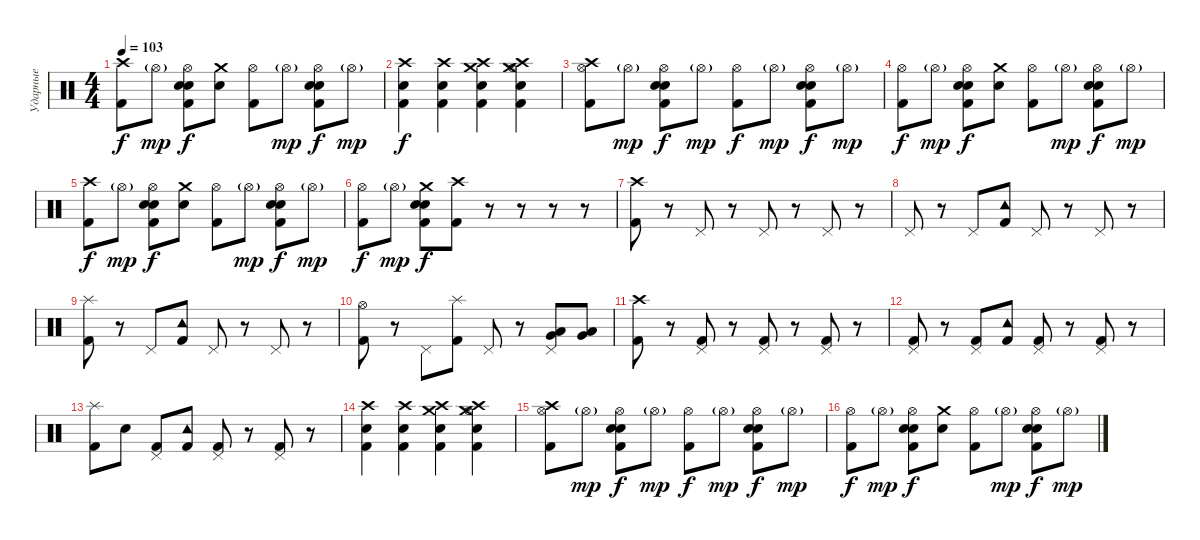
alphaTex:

\track ("Ударные" "Ударные") {instrument percussion}
\staff {score}
\articulation defaults
\ts (4 4)
\tempo 103
\clef neutral
\ks c
("Crash high (hit)" "Kick (hit) 2").8{dy f} "Hi-Hat (open)"{g}.8{dy mp} ("Hi-Hat (open)" "Snare (hit) 2" "Hand Clap (hit)" "Kick (hit) 2").8{dy f} ("Crash medium (hit)" "Snare (hit) 2").8 ("Hi-Hat (open)" "Kick (hit) 2").8 "Hi-Hat (open)"{g}.8{dy mp} ("Hi-Hat (open)" "Snare (hit) 2" "Hand Clap (hit)" "Kick (hit) 2").8{dy f} "Hi-Hat (open)"{g}.8{dy mp} |
("Crash high (hit)" "Snare (hit) 2" "Kick (hit) 2").4{dy f} ("Crash high (hit)" "Snare (hit) 2" "Kick (hit) 2").4 ("Crash medium (hit)" "Crash high (hit)" "Snare (hit) 2" "Kick (hit) 2").4 ("Crash medium (hit)" "Crash high (hit)" "Snare (hit) 2" "Hi-Hat (open)" "Kick (hit) 2").4 |
("Crash high (hit)" "Hi-Hat (open)" "Kick (hit) 2").8 "Hi-Hat (open)"{g}.8{dy mp} ("Hi-Hat (open)" "Snare (hit) 2" "Hand Clap (hit)" "Kick (hit) 2").8{dy f} "Hi-Hat (open)"{g}.8{dy mp} ("Hi-Hat (open)" "Kick (hit) 2").8{dy f} "Hi-Hat (open)"{g}.8{dy mp} ("Hi-Hat (open)" "Snare (hit) 2" "Hand Clap (hit)" "Kick (hit) 2").8{dy f} "Hi-Hat (open)"{g}.8{dy mp} |
("Hi-Hat (open)" "Kick (hit) 2").8{dy f} "Hi-Hat (open)"{g}.8{dy mp} ("Hi-Hat (open)" "Snare (hit) 2" "Hand Clap (hit)" "Kick (hit) 2").8{dy f} ("Crash medium (hit)" "Snare (hit) 2").8 ("Hi-Hat (open)" "Kick (hit) 2").8 "Hi-Hat (open)"{g}.8{dy mp} ("Hi-Hat (open)" "Snare (hit) 2" "Hand Clap (hit)" "Kick (hit) 2").8{dy f} "Hi-Hat (open)"{g}.8{dy mp} |
("Crash high (hit)" "Kick (hit) 2").8{dy f} "Hi-Hat (open)"{g}.8{dy mp} ("Hi-Hat (open)" "Snare (hit) 2" "Hand Clap (hit)" "Kick (hit) 2").8{dy f} ("Crash medium (hit)" "Snare (hit) 2").8 ("Hi-Hat (open)" "Kick (hit) 2").8 "Hi-Hat (open)"{g}.8{dy mp} ("Hi-Hat (open)" "Snare (hit) 2" "Hand Clap (hit)" "Kick (hit) 2").8{dy f} "Hi-Hat (open)"{g}.8{dy mp} |
("Hi-Hat (open)" "Kick (hit) 2").8{dy f} "Hi-Hat (open)"{g}.8{dy mp} ("Crash medium (hit)" "Snare (hit) 2" "Hand Clap (hit)" "Kick (hit) 2").8{dy f} ("Crash high (hit)" "Kick (hit) 2").8 r.8 r.8 r.8 r.8 |
("Crash high (hit)" "Kick (hit) 2").8 r.8 "Pedal Hi-Hat (hit)".8 r.8 "Pedal Hi-Hat (hit)".8 r.8 "Pedal Hi-Hat (hit)".8 r.8 |
"Pedal Hi-Hat (hit)".8 r.8 "Pedal Hi-Hat (hit)".8 ("Tambourine (hit)" "Kick (hit) 2").8 "Pedal Hi-Hat (hit)".8 r.8 "Pedal Hi-Hat (hit)".8 r.8 |
("Splash (hit)" "Kick (hit) 2").8 r.8 "Pedal Hi-Hat (hit)".8 ("Tambourine (hit)" "Kick (hit) 2").8 "Pedal Hi-Hat (hit)".8 r.8 "Pedal Hi-Hat (hit)".8 r.8 |
("Hi-Hat (open)" "Kick (hit) 2").8 r.8 "Pedal Hi-Hat (hit)".8 ("Splash (hit)" "Kick (hit) 2").8 "Pedal Hi-Hat (hit)".8 r.8 ("Pedal Hi-Hat (hit)" "Low Tom (hit)" "Very Low Tom (hit)").8 ("Low Tom (hit)" "Very Low Tom (hit)").8 |
("Crash high (hit)" "Kick (hit) 2").8 r.8 ("Pedal Hi-Hat (hit)" "Kick (hit) 2").8 r.8 ("Pedal Hi-Hat (hit)" "Kick (hit) 2").8 r.8 ("Pedal Hi-Hat (hit)" "Kick (hit) 2").8 r.8 |
("Pedal Hi-Hat (hit)" "Kick (hit) 2").8 r.8 ("Pedal Hi-Hat (hit)" "Kick (hit) 2").8 ("Tambourine (hit)" "Kick (hit) 2").8 ("Pedal Hi-Hat (hit)" "Kick (hit) 2").8 r.8 ("Pedal Hi-Hat (hit)" "Kick (hit) 2").8 r.8 |
("Splash (hit)" "Kick (hit) 2").8 "Snare (hit)".8 ("Pedal Hi-Hat (hit)" "Kick (hit) 2").8 ("Tambourine (hit)" "Kick (hit) 2").8 ("Pedal Hi-Hat (hit)" "Kick (hit) 2").8 r.8 ("Pedal Hi-Hat (hit)" "Kick (hit) 2").8 r.8 |
("Crash high (hit)" "Snare (hit) 2" "Kick (hit) 2").4 ("Crash high (hit)" "Snare (hit) 2" "Kick (hit) 2").4 ("Crash medium (hit)" "Crash high (hit)" "Snare (hit) 2" "Kick (hit) 2").4 ("Crash medium (hit)" "Crash high (hit)" "Snare (hit) 2" "Hi-Hat (open)" "Kick (hit) 2").4 |
("Crash high (hit)" "Hi-Hat (open)" "Kick (hit) 2").8 "Hi-Hat (open)"{g}.8{dy mp} ("Hi-Hat (open)" "Snare (hit) 2" "Hand Clap (hit)" "Kick (hit) 2").8{dy f} "Hi-Hat (open)"{g}.8{dy mp} ("Hi-Hat (open)" "Kick (hit) 2").8{dy f} "Hi-Hat (open)"{g}.8{dy mp} ("Hi-Hat (open)" "Snare (hit) 2" "Hand Clap (hit)" "Kick (hit) 2").8{dy f} "Hi-Hat (open)"{g}.8{dy mp} |
("Hi-Hat (open)" "Kick (hit) 2").8{dy f} "Hi-Hat (open)"{g}.8{dy mp} ("Hi-Hat (open)" "Snare (hit) 2" "Hand Clap (hit)" "Kick (hit) 2").8{dy f} ("Crash medium (hit)" "Snare (hit) 2").8 ("Hi-Hat (open)" "Kick (hit) 2").8 "Hi-Hat (open)"{g}.8{dy mp} ("Hi-Hat (open)" "Snare (hit) 2" "Hand Clap (hit)" "Kick (hit) 2").8{dy f} "Hi-Hat (open)"{g}.8{dy mp}
